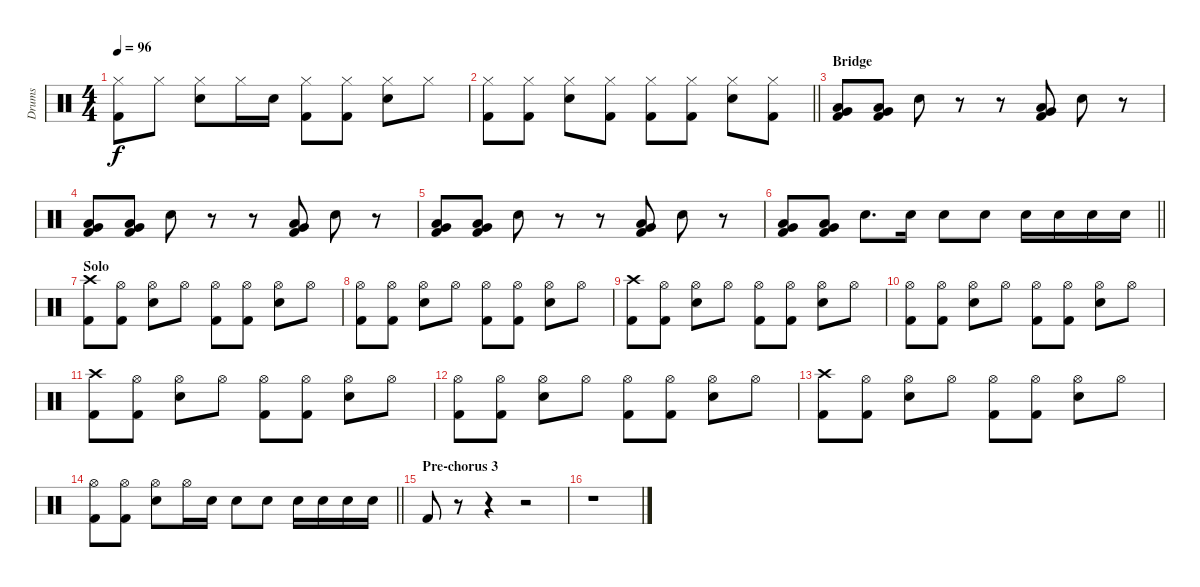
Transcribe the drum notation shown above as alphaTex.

\track ("Drums" "Drums") {instrument percussion}
\staff {score}
\articulation defaults
\ts (4 4)
\tempo 96
\clef neutral
\ks c
("Hi-Hat (closed)" "Kick (hit) 2").8{dy f} "Hi-Hat (closed)".8 ("Hi-Hat (closed)" "Electric Snare (hit)").8 "Hi-Hat (closed)".16 "Electric Snare (hit)".16 ("Hi-Hat (closed)" "Kick (hit) 2").8 ("Hi-Hat (closed)" "Kick (hit) 2").8 ("Hi-Hat (closed)" "Electric Snare (hit)").8 "Hi-Hat (closed)".8 |
\barLineRight lightlight
("Hi-Hat (closed)" "Kick (hit) 2").8 ("Hi-Hat (closed)" "Kick (hit) 2").8 ("Hi-Hat (closed)" "Electric Snare (hit)").8 ("Hi-Hat (closed)" "Kick (hit) 2").8 ("Hi-Hat (closed)" "Kick (hit) 2").8 ("Hi-Hat (closed)" "Kick (hit) 2").8 ("Hi-Hat (closed)" "Electric Snare (hit)").8 ("Hi-Hat (closed)" "Kick (hit) 2").8 |
\section ("" "Bridge")
("Low Tom (hit)" "Very Low Tom (hit)" "Kick (hit) 2").8 ("Low Tom (hit)" "Very Low Tom (hit)" "Kick (hit) 2").8 "Electric Snare (hit)".8 r.8 r.8 ("Low Tom (hit)" "Very Low Tom (hit)" "Kick (hit) 2").8 "Electric Snare (hit)".8 r.8 |
("Low Tom (hit)" "Very Low Tom (hit)" "Kick (hit) 2").8 ("Low Tom (hit)" "Very Low Tom (hit)" "Kick (hit) 2").8 "Electric Snare (hit)".8 r.8 r.8 ("Low Tom (hit)" "Very Low Tom (hit)" "Kick (hit) 2").8 "Electric Snare (hit)".8 r.8 |
("Low Tom (hit)" "Very Low Tom (hit)" "Kick (hit) 2").8 ("Low Tom (hit)" "Very Low Tom (hit)" "Kick (hit) 2").8 "Electric Snare (hit)".8 r.8 r.8 ("Low Tom (hit)" "Very Low Tom (hit)" "Kick (hit) 2").8 "Electric Snare (hit)".8 r.8 |
\barLineRight lightlight
("Low Tom (hit)" "Very Low Tom (hit)" "Kick (hit) 2").8 ("Low Tom (hit)" "Very Low Tom (hit)" "Kick (hit) 2").8 "Electric Snare (hit)".8{d} "Electric Snare (hit)".16 "Electric Snare (hit)".8 "Electric Snare (hit)".8 "Electric Snare (hit)".16 "Electric Snare (hit)".16 "Electric Snare (hit)".16 "Electric Snare (hit)".16 |
\section ("" "Solo")
("Crash high (hit)" "Kick (hit) 2").8 ("Hi-Hat (open)" "Kick (hit) 2").8 ("Hi-Hat (open)" "Electric Snare (hit)").8 "Hi-Hat (open)".8 ("Hi-Hat (open)" "Kick (hit) 2").8 ("Hi-Hat (open)" "Kick (hit) 2").8 ("Hi-Hat (open)" "Electric Snare (hit)").8 "Hi-Hat (open)".8 |
("Hi-Hat (open)" "Kick (hit) 2").8 ("Hi-Hat (open)" "Kick (hit) 2").8 ("Hi-Hat (open)" "Electric Snare (hit)").8 "Hi-Hat (open)".8 ("Hi-Hat (open)" "Kick (hit) 2").8 ("Hi-Hat (open)" "Kick (hit) 2").8 ("Hi-Hat (open)" "Electric Snare (hit)").8 "Hi-Hat (open)".8 |
("Crash high (hit)" "Kick (hit) 2").8 ("Hi-Hat (open)" "Kick (hit) 2").8 ("Hi-Hat (open)" "Electric Snare (hit)").8 "Hi-Hat (open)".8 ("Hi-Hat (open)" "Kick (hit) 2").8 ("Hi-Hat (open)" "Kick (hit) 2").8 ("Hi-Hat (open)" "Electric Snare (hit)").8 "Hi-Hat (open)".8 |
("Hi-Hat (open)" "Kick (hit) 2").8 ("Hi-Hat (open)" "Kick (hit) 2").8 ("Hi-Hat (open)" "Electric Snare (hit)").8 "Hi-Hat (open)".8 ("Hi-Hat (open)" "Kick (hit) 2").8 ("Hi-Hat (open)" "Kick (hit) 2").8 ("Hi-Hat (open)" "Electric Snare (hit)").8 "Hi-Hat (open)".8 |
("Crash high (hit)" "Kick (hit) 2").8 ("Hi-Hat (open)" "Kick (hit) 2").8 ("Hi-Hat (open)" "Electric Snare (hit)").8 "Hi-Hat (open)".8 ("Hi-Hat (open)" "Kick (hit) 2").8 ("Hi-Hat (open)" "Kick (hit) 2").8 ("Hi-Hat (open)" "Electric Snare (hit)").8 "Hi-Hat (open)".8 |
("Hi-Hat (open)" "Kick (hit) 2").8 ("Hi-Hat (open)" "Kick (hit) 2").8 ("Hi-Hat (open)" "Electric Snare (hit)").8 "Hi-Hat (open)".8 ("Hi-Hat (open)" "Kick (hit) 2").8 ("Hi-Hat (open)" "Kick (hit) 2").8 ("Hi-Hat (open)" "Electric Snare (hit)").8 "Hi-Hat (open)".8 |
("Crash high (hit)" "Kick (hit) 2").8 ("Hi-Hat (open)" "Kick (hit) 2").8 ("Hi-Hat (open)" "Electric Snare (hit)").8 "Hi-Hat (open)".8 ("Hi-Hat (open)" "Kick (hit) 2").8 ("Hi-Hat (open)" "Kick (hit) 2").8 ("Hi-Hat (open)" "Electric Snare (hit)").8 "Hi-Hat (open)".8 |
\barLineRight lightlight
("Hi-Hat (open)" "Kick (hit) 2").8 ("Hi-Hat (open)" "Kick (hit) 2").8 ("Hi-Hat (open)" "Electric Snare (hit)").8 "Hi-Hat (open)".16 "Electric Snare (hit)".16 "Electric Snare (hit)".8 "Electric Snare (hit)".8 "Electric Snare (hit)".16 "Electric Snare (hit)".16 "Electric Snare (hit)".16 "Electric Snare (hit)".16 |
\section ("" "Pre-chorus 3")
"Kick (hit) 2".8 r.8 r.4 r.2 |
r.1
